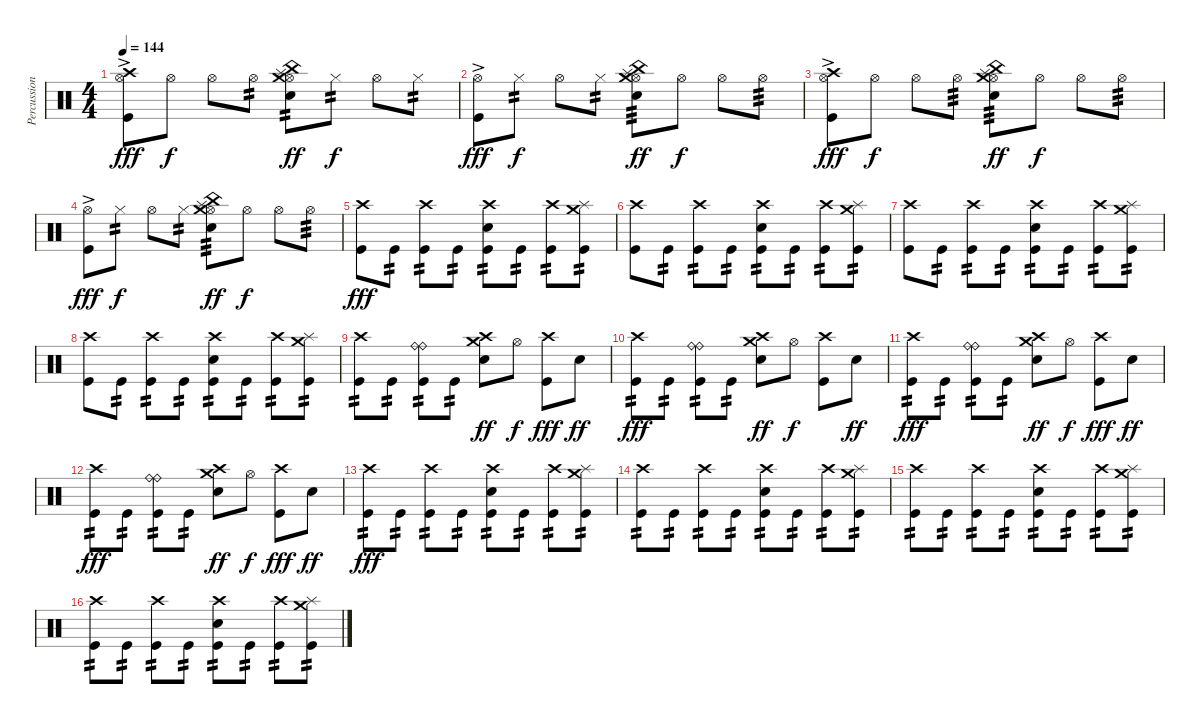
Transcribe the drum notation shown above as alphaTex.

\track ("Percussion" "Percussion") {instrument percussion}
\staff {score}
\articulation defaults
\ts (4 4)
\tempo 144
\clef neutral
\ks c
("Hi-Hat (open)" "Crash high (hit)" "Kick (hit)"{ac}).8{dy fff} "Hi-Hat (open)".8{dy f} "Hi-Hat (open)".8 "Hi-Hat (open)".8{tp 2} ("Hi-Hat (open)" "Electric Snare (hit)" "Splash (hit)" "China (hit)" "Crash medium (hit)").8{tp 2 dy ff} "Hi-Hat (closed)".8{tp 2 dy f} "Hi-Hat (open)".8 "Hi-Hat (closed)".8{tp 2} |
("Hi-Hat (open)" "Kick (hit)"{ac}).8{dy fff} "Hi-Hat (closed)".8{tp 2 dy f} "Hi-Hat (open)".8 "Hi-Hat (closed)".8{tp 2} ("Hi-Hat (open)" "Electric Snare (hit)" "Splash (hit)" "China (hit)" "Crash medium (hit)").8{tp 3 dy ff} "Hi-Hat (open)".8{dy f} "Hi-Hat (open)".8 "Hi-Hat (open)".8{tp 3} |
("Hi-Hat (open)" "Crash high (hit)" "Kick (hit)"{ac}).8{dy fff} "Hi-Hat (open)".8{dy f} "Hi-Hat (open)".8 "Hi-Hat (open)".8{tp 3} ("Hi-Hat (open)" "Electric Snare (hit)" "Splash (hit)" "China (hit)" "Crash medium (hit)").8{tp 3 dy ff} "Hi-Hat (open)".8{dy f} "Hi-Hat (open)".8 "Hi-Hat (open)".8{tp 3} |
("Hi-Hat (open)" "Kick (hit)"{ac}).8{dy fff} "Hi-Hat (closed)".8{tp 2 dy f} "Hi-Hat (open)".8 "Hi-Hat (closed)".8{tp 2} ("Hi-Hat (open)" "Electric Snare (hit)" "Splash (hit)" "China (hit)" "Crash medium (hit)").8{tp 3 dy ff} "Hi-Hat (open)".8{dy f} "Hi-Hat (open)".8 "Hi-Hat (open)".8{tp 3} |
("Crash high (hit)" "Kick (hit)").8{dy fff} "Kick (hit)".8{tp 2} ("Crash high (hit)" "Kick (hit)").8{tp 2} "Kick (hit)".8{tp 2} ("Crash high (hit)" "Electric Snare (hit)" "Kick (hit)").8{tp 2} "Kick (hit)".8{tp 2} ("Crash high (hit)" "Kick (hit)").8{tp 2} ("Splash (hit)" "Crash medium (hit)" "Kick (hit)").8{tp 2} |
("Crash high (hit)" "Kick (hit)").8 "Kick (hit)".8{tp 2} ("Crash high (hit)" "Kick (hit)").8{tp 2} "Kick (hit)".8{tp 2} ("Crash high (hit)" "Electric Snare (hit)" "Kick (hit)").8{tp 2} "Kick (hit)".8{tp 2} ("Crash high (hit)" "Kick (hit)").8{tp 2} ("Splash (hit)" "Crash medium (hit)" "Kick (hit)").8{tp 2} |
("Crash high (hit)" "Kick (hit)").8 "Kick (hit)".8{tp 2} ("Crash high (hit)" "Kick (hit)").8{tp 2} "Kick (hit)".8{tp 2} ("Crash high (hit)" "Electric Snare (hit)" "Kick (hit)").8{tp 2} "Kick (hit)".8{tp 2} ("Crash high (hit)" "Kick (hit)").8{tp 2} ("Splash (hit)" "Crash medium (hit)" "Kick (hit)").8{tp 2} |
("Crash high (hit)" "Kick (hit)").8 "Kick (hit)".8{tp 2} ("Crash high (hit)" "Kick (hit)").8{tp 2} "Kick (hit)".8{tp 2} ("Crash high (hit)" "Electric Snare (hit)" "Kick (hit)").8{tp 2} "Kick (hit)".8{tp 2} ("Crash high (hit)" "Kick (hit)").8{tp 2} ("Splash (hit)" "Crash medium (hit)" "Kick (hit)").8{tp 2} |
("Crash high (hit)" "Kick (hit)").8{tp 2} "Kick (hit)".8{tp 2} ("Ride (bell)" "Ride (bell)" "Kick (hit)").8{tp 2} "Kick (hit)".8{tp 2} ("Crash medium (hit)" "Crash high (hit)" "Electric Snare (hit)").8{dy ff} "Hi-Hat (open)".8{dy f} ("Crash high (hit)" "Kick (hit)").8{dy fff} "Electric Snare (hit)".8{dy ff} |
("Crash high (hit)" "Kick (hit)").8{tp 2 dy fff} "Kick (hit)".8{tp 2} ("Ride (bell)" "Ride (bell)" "Kick (hit)").8{tp 2} "Kick (hit)".8{tp 2} ("Crash medium (hit)" "Crash high (hit)" "Electric Snare (hit)").8{dy ff} "Hi-Hat (open)".8{dy f} ("Crash high (hit)" "Kick (hit)").8 "Electric Snare (hit)".8{dy ff} |
("Crash high (hit)" "Kick (hit)").8{tp 2 dy fff} "Kick (hit)".8{tp 2} ("Ride (bell)" "Ride (bell)" "Kick (hit)").8{tp 2} "Kick (hit)".8{tp 2} ("Crash medium (hit)" "Crash high (hit)" "Electric Snare (hit)").8{dy ff} "Hi-Hat (open)".8{dy f} ("Crash high (hit)" "Kick (hit)").8{dy fff} "Electric Snare (hit)".8{dy ff} |
("Crash high (hit)" "Kick (hit)").8{tp 2 dy fff} "Kick (hit)".8{tp 2} ("Ride (bell)" "Ride (bell)" "Kick (hit)").8{tp 2} "Kick (hit)".8{tp 2} ("Crash medium (hit)" "Crash high (hit)" "Electric Snare (hit)").8{dy ff} "Hi-Hat (open)".8{dy f} ("Crash high (hit)" "Kick (hit)").8{dy fff} "Electric Snare (hit)".8{dy ff} |
("Crash high (hit)" "Kick (hit)").8{tp 2 dy fff} "Kick (hit)".8{tp 2} ("Crash high (hit)" "Kick (hit)").8{tp 2} "Kick (hit)".8{tp 2} ("Crash high (hit)" "Electric Snare (hit)" "Kick (hit)").8{tp 2} "Kick (hit)".8{tp 2} ("Crash high (hit)" "Kick (hit)").8{tp 2} ("Splash (hit)" "Crash medium (hit)" "Kick (hit)").8{tp 2} |
("Crash high (hit)" "Kick (hit)").8{tp 2} "Kick (hit)".8{tp 2} ("Crash high (hit)" "Kick (hit)").8{tp 2} "Kick (hit)".8{tp 2} ("Crash high (hit)" "Electric Snare (hit)" "Kick (hit)").8{tp 2} "Kick (hit)".8{tp 2} ("Crash high (hit)" "Kick (hit)").8{tp 2} ("Splash (hit)" "Crash medium (hit)" "Kick (hit)").8{tp 2} |
("Crash high (hit)" "Kick (hit)").8{tp 2} "Kick (hit)".8{tp 2} ("Crash high (hit)" "Kick (hit)").8{tp 2} "Kick (hit)".8{tp 2} ("Crash high (hit)" "Electric Snare (hit)" "Kick (hit)").8{tp 2} "Kick (hit)".8{tp 2} ("Crash high (hit)" "Kick (hit)").8{tp 2} ("Splash (hit)" "Crash medium (hit)" "Kick (hit)").8{tp 2} |
("Crash high (hit)" "Kick (hit)").8{tp 2} "Kick (hit)".8{tp 2} ("Crash high (hit)" "Kick (hit)").8{tp 2} "Kick (hit)".8{tp 2} ("Crash high (hit)" "Electric Snare (hit)" "Kick (hit)").8{tp 2} "Kick (hit)".8{tp 2} ("Crash high (hit)" "Kick (hit)").8{tp 2} ("Splash (hit)" "Crash medium (hit)" "Kick (hit)").8{tp 2}
